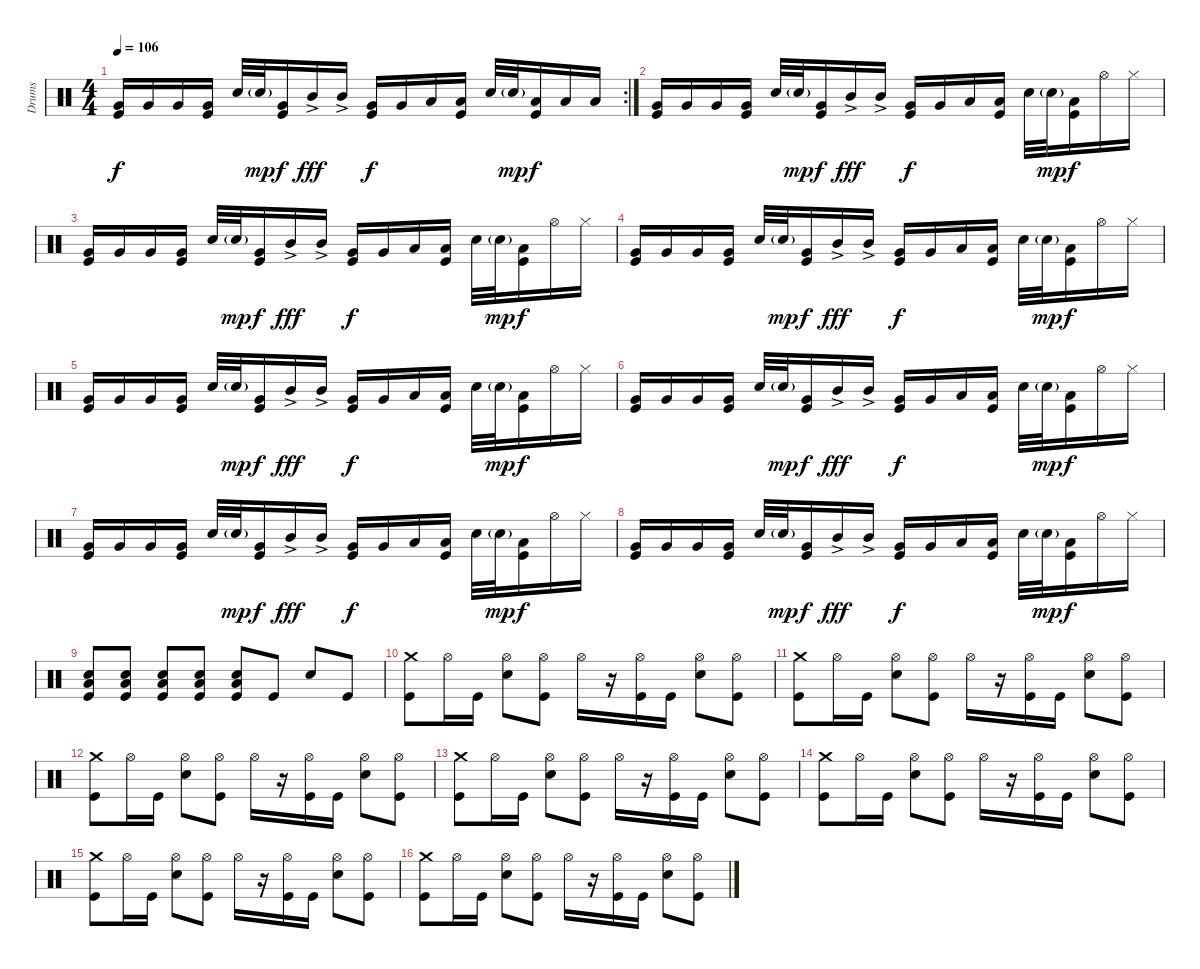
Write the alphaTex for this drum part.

\track ("Drums" "Drums") {instrument percussion}
\staff {score}
\articulation defaults
\rc 2
\ts (4 4)
\tempo 106
\clef neutral
\ks c
("Very Low Tom (hit)" "Kick (hit)").16{dy f} "Very Low Tom (hit)".16 "Very Low Tom (hit)".16 ("Very Low Tom (hit)" "Kick (hit)").16 "Snare (hit) 2".32 "Snare (hit) 2"{g}.32{dy mp} ("Very Low Tom (hit)" "Kick (hit)").16{dy f} "Mid Tom (hit)"{ac}.16{dy fff} "Mid Tom (hit)"{ac}.16 ("Very Low Tom (hit)" "Kick (hit)").16{dy f} "Very Low Tom (hit)".16 "Low Floor Tom (hit)".16 ("Low Floor Tom (hit)" "Kick (hit)").16 "Snare (hit) 2".32 "Snare (hit) 2"{g}.32{dy mp} ("Low Floor Tom (hit)" "Kick (hit)").16{dy f} "Low Floor Tom (hit)".16 "Low Floor Tom (hit)".16 |
("Very Low Tom (hit)" "Kick (hit)").16 "Very Low Tom (hit)".16 "Very Low Tom (hit)".16 ("Very Low Tom (hit)" "Kick (hit)").16 "Snare (hit) 2".32 "Snare (hit) 2"{g}.32{dy mp} ("Very Low Tom (hit)" "Kick (hit)").16{dy f} "Mid Tom (hit)"{ac}.16{dy fff} "Mid Tom (hit)"{ac}.16 ("Very Low Tom (hit)" "Kick (hit)").16{dy f} "Very Low Tom (hit)".16 "Low Floor Tom (hit)".16 ("Low Floor Tom (hit)" "Kick (hit)").16 "Snare (hit) 2".32 "Snare (hit) 2"{g}.32{dy mp} ("Low Floor Tom (hit)" "Kick (hit)").16{dy f} "Hi-Hat (open)".16 "Hi-Hat (closed)".16 |
("Very Low Tom (hit)" "Kick (hit)").16 "Very Low Tom (hit)".16 "Very Low Tom (hit)".16 ("Very Low Tom (hit)" "Kick (hit)").16 "Snare (hit) 2".32 "Snare (hit) 2"{g}.32{dy mp} ("Very Low Tom (hit)" "Kick (hit)").16{dy f} "Mid Tom (hit)"{ac}.16{dy fff} "Mid Tom (hit)"{ac}.16 ("Very Low Tom (hit)" "Kick (hit)").16{dy f} "Very Low Tom (hit)".16 "Low Floor Tom (hit)".16 ("Low Floor Tom (hit)" "Kick (hit)").16 "Snare (hit) 2".32 "Snare (hit) 2"{g}.32{dy mp} ("Low Floor Tom (hit)" "Kick (hit)").16{dy f} "Hi-Hat (open)".16 "Hi-Hat (closed)".16 |
("Very Low Tom (hit)" "Kick (hit)").16 "Very Low Tom (hit)".16 "Very Low Tom (hit)".16 ("Very Low Tom (hit)" "Kick (hit)").16 "Snare (hit) 2".32 "Snare (hit) 2"{g}.32{dy mp} ("Very Low Tom (hit)" "Kick (hit)").16{dy f} "Mid Tom (hit)"{ac}.16{dy fff} "Mid Tom (hit)"{ac}.16 ("Very Low Tom (hit)" "Kick (hit)").16{dy f} "Very Low Tom (hit)".16 "Low Floor Tom (hit)".16 ("Low Floor Tom (hit)" "Kick (hit)").16 "Snare (hit) 2".32 "Snare (hit) 2"{g}.32{dy mp} ("Low Floor Tom (hit)" "Kick (hit)").16{dy f} "Hi-Hat (open)".16 "Hi-Hat (closed)".16 |
("Very Low Tom (hit)" "Kick (hit)").16 "Very Low Tom (hit)".16 "Very Low Tom (hit)".16 ("Very Low Tom (hit)" "Kick (hit)").16 "Snare (hit) 2".32 "Snare (hit) 2"{g}.32{dy mp} ("Very Low Tom (hit)" "Kick (hit)").16{dy f} "Mid Tom (hit)"{ac}.16{dy fff} "Mid Tom (hit)"{ac}.16 ("Very Low Tom (hit)" "Kick (hit)").16{dy f} "Very Low Tom (hit)".16 "Low Floor Tom (hit)".16 ("Low Floor Tom (hit)" "Kick (hit)").16 "Snare (hit) 2".32 "Snare (hit) 2"{g}.32{dy mp} ("Low Floor Tom (hit)" "Kick (hit)").16{dy f} "Hi-Hat (open)".16 "Hi-Hat (closed)".16 |
("Very Low Tom (hit)" "Kick (hit)").16 "Very Low Tom (hit)".16 "Very Low Tom (hit)".16 ("Very Low Tom (hit)" "Kick (hit)").16 "Snare (hit) 2".32 "Snare (hit) 2"{g}.32{dy mp} ("Very Low Tom (hit)" "Kick (hit)").16{dy f} "Mid Tom (hit)"{ac}.16{dy fff} "Mid Tom (hit)"{ac}.16 ("Very Low Tom (hit)" "Kick (hit)").16{dy f} "Very Low Tom (hit)".16 "Low Floor Tom (hit)".16 ("Low Floor Tom (hit)" "Kick (hit)").16 "Snare (hit) 2".32 "Snare (hit) 2"{g}.32{dy mp} ("Low Floor Tom (hit)" "Kick (hit)").16{dy f} "Hi-Hat (open)".16 "Hi-Hat (closed)".16 |
("Very Low Tom (hit)" "Kick (hit)").16 "Very Low Tom (hit)".16 "Very Low Tom (hit)".16 ("Very Low Tom (hit)" "Kick (hit)").16 "Snare (hit) 2".32 "Snare (hit) 2"{g}.32{dy mp} ("Very Low Tom (hit)" "Kick (hit)").16{dy f} "Mid Tom (hit)"{ac}.16{dy fff} "Mid Tom (hit)"{ac}.16 ("Very Low Tom (hit)" "Kick (hit)").16{dy f} "Very Low Tom (hit)".16 "Low Floor Tom (hit)".16 ("Low Floor Tom (hit)" "Kick (hit)").16 "Snare (hit) 2".32 "Snare (hit) 2"{g}.32{dy mp} ("Low Floor Tom (hit)" "Kick (hit)").16{dy f} "Hi-Hat (open)".16 "Hi-Hat (closed)".16 |
("Very Low Tom (hit)" "Kick (hit)").16 "Very Low Tom (hit)".16 "Very Low Tom (hit)".16 ("Very Low Tom (hit)" "Kick (hit)").16 "Snare (hit) 2".32 "Snare (hit) 2"{g}.32{dy mp} ("Very Low Tom (hit)" "Kick (hit)").16{dy f} "Mid Tom (hit)"{ac}.16{dy fff} "Mid Tom (hit)"{ac}.16 ("Very Low Tom (hit)" "Kick (hit)").16{dy f} "Very Low Tom (hit)".16 "Low Floor Tom (hit)".16 ("Low Floor Tom (hit)" "Kick (hit)").16 "Snare (hit) 2".32 "Snare (hit) 2"{g}.32{dy mp} ("Low Floor Tom (hit)" "Kick (hit)").16{dy f} "Hi-Hat (open)".16 "Hi-Hat (closed)".16 |
("Snare (hit) 2" "Low Floor Tom (hit)" "Kick (hit)").8{volume 6} ("Snare (hit) 2" "Low Floor Tom (hit)" "Kick (hit)").8{volume 13} ("Snare (hit) 2" "Low Floor Tom (hit)" "Kick (hit)").8 ("Snare (hit) 2" "Low Floor Tom (hit)" "Kick (hit)").8 ("Snare (hit) 2" "Low Floor Tom (hit)" "Kick (hit)").8 "Kick (hit)".8 "Snare (hit) 2".8 "Kick (hit)".8 |
("Crash medium (hit)" "Kick (hit)").8 "Hi-Hat (open)".16 "Kick (hit)".16 ("Hi-Hat (open)" "Snare (hit) 2").8 ("Hi-Hat (open)" "Kick (hit)").8 "Hi-Hat (open)".16 r.16 ("Hi-Hat (open)" "Kick (hit)").16 "Kick (hit)".16 ("Hi-Hat (open)" "Snare (hit) 2").8 ("Hi-Hat (open)" "Kick (hit)").8 |
("Crash medium (hit)" "Kick (hit)").8 "Hi-Hat (open)".16 "Kick (hit)".16 ("Hi-Hat (open)" "Snare (hit) 2").8 ("Hi-Hat (open)" "Kick (hit)").8 "Hi-Hat (open)".16 r.16 ("Hi-Hat (open)" "Kick (hit)").16 "Kick (hit)".16 ("Hi-Hat (open)" "Snare (hit) 2").8 ("Hi-Hat (open)" "Kick (hit)").8 |
("Crash medium (hit)" "Kick (hit)").8 "Hi-Hat (open)".16 "Kick (hit)".16 ("Hi-Hat (open)" "Snare (hit) 2").8 ("Hi-Hat (open)" "Kick (hit)").8 "Hi-Hat (open)".16 r.16 ("Hi-Hat (open)" "Kick (hit)").16 "Kick (hit)".16 ("Hi-Hat (open)" "Snare (hit) 2").8 ("Hi-Hat (open)" "Kick (hit)").8 |
("Crash medium (hit)" "Kick (hit)").8 "Hi-Hat (open)".16 "Kick (hit)".16 ("Hi-Hat (open)" "Snare (hit) 2").8 ("Hi-Hat (open)" "Kick (hit)").8 "Hi-Hat (open)".16 r.16 ("Hi-Hat (open)" "Kick (hit)").16 "Kick (hit)".16 ("Hi-Hat (open)" "Snare (hit) 2").8 ("Hi-Hat (open)" "Kick (hit)").8 |
("Crash medium (hit)" "Kick (hit)").8 "Hi-Hat (open)".16 "Kick (hit)".16 ("Hi-Hat (open)" "Snare (hit) 2").8 ("Hi-Hat (open)" "Kick (hit)").8 "Hi-Hat (open)".16 r.16 ("Hi-Hat (open)" "Kick (hit)").16 "Kick (hit)".16 ("Hi-Hat (open)" "Snare (hit) 2").8 ("Hi-Hat (open)" "Kick (hit)").8 |
("Crash medium (hit)" "Kick (hit)").8 "Hi-Hat (open)".16 "Kick (hit)".16 ("Hi-Hat (open)" "Snare (hit) 2").8 ("Hi-Hat (open)" "Kick (hit)").8 "Hi-Hat (open)".16 r.16 ("Hi-Hat (open)" "Kick (hit)").16 "Kick (hit)".16 ("Hi-Hat (open)" "Snare (hit) 2").8 ("Hi-Hat (open)" "Kick (hit)").8 |
("Crash medium (hit)" "Kick (hit)").8 "Hi-Hat (open)".16 "Kick (hit)".16 ("Hi-Hat (open)" "Snare (hit) 2").8 ("Hi-Hat (open)" "Kick (hit)").8 "Hi-Hat (open)".16 r.16 ("Hi-Hat (open)" "Kick (hit)").16 "Kick (hit)".16 ("Hi-Hat (open)" "Snare (hit) 2").8 ("Hi-Hat (open)" "Kick (hit)").8
